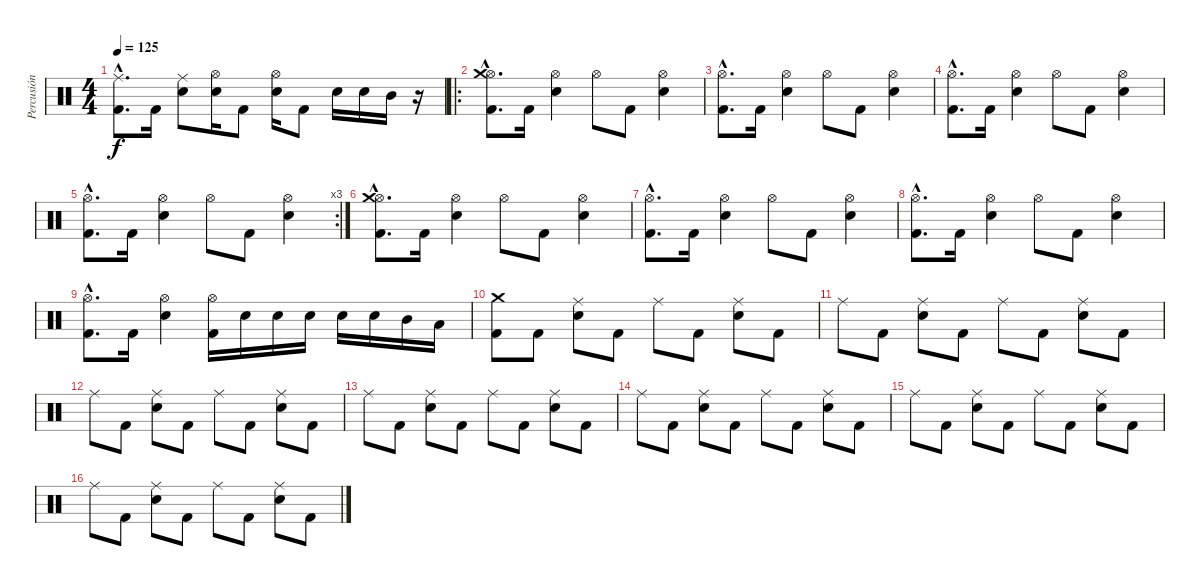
\track ("Percusión" "Percusión") {instrument percussion}
\staff {score}
\articulation defaults
\ts (4 4)
\tempo 125
\clef neutral
\ks c
("Ride (middle)"{hac} "Kick (hit) 2"{hac}).8{d dy f} "Kick (hit) 2".16 ("Ride (middle)" "Electric Snare (hit)").8 ("Hi-Hat (open)" "Electric Snare (hit)").16 "Kick (hit) 2".8 ("Hi-Hat (open)" "Electric Snare (hit)").16 "Kick (hit) 2".8 "Electric Snare (hit)".16 "Electric Snare (hit)".16 "Mid Tom (hit)".16 r.16 |
\ro
("Hi-Hat (open)"{hac} "Kick (hit) 2"{hac} "Crash medium (hit)"{hac}).8{d} "Kick (hit) 2".16 ("Hi-Hat (open)" "Electric Snare (hit)").4 "Hi-Hat (open)".8 "Kick (hit) 2".8 ("Hi-Hat (open)" "Electric Snare (hit)").4 |
("Hi-Hat (open)"{hac} "Kick (hit) 2"{hac}).8{d} "Kick (hit) 2".16 ("Hi-Hat (open)" "Electric Snare (hit)").4 "Hi-Hat (open)".8 "Kick (hit) 2".8 ("Hi-Hat (open)" "Electric Snare (hit)").4 |
("Hi-Hat (open)"{hac} "Kick (hit) 2"{hac}).8{d} "Kick (hit) 2".16 ("Hi-Hat (open)" "Electric Snare (hit)").4 "Hi-Hat (open)".8 "Kick (hit) 2".8 ("Hi-Hat (open)" "Electric Snare (hit)").4 |
\rc 3
("Hi-Hat (open)"{hac} "Kick (hit) 2"{hac}).8{d} "Kick (hit) 2".16 ("Hi-Hat (open)" "Electric Snare (hit)").4 "Hi-Hat (open)".8 "Kick (hit) 2".8 ("Hi-Hat (open)" "Electric Snare (hit)").4 |
("Hi-Hat (open)"{hac} "Kick (hit) 2"{hac} "Crash medium (hit)"{hac}).8{d} "Kick (hit) 2".16 ("Hi-Hat (open)" "Electric Snare (hit)").4 "Hi-Hat (open)".8 "Kick (hit) 2".8 ("Hi-Hat (open)" "Electric Snare (hit)").4 |
("Hi-Hat (open)"{hac} "Kick (hit) 2"{hac}).8{d} "Kick (hit) 2".16 ("Hi-Hat (open)" "Electric Snare (hit)").4 "Hi-Hat (open)".8 "Kick (hit) 2".8 ("Hi-Hat (open)" "Electric Snare (hit)").4 |
("Hi-Hat (open)"{hac} "Kick (hit) 2"{hac}).8{d} "Kick (hit) 2".16 ("Hi-Hat (open)" "Electric Snare (hit)").4 "Hi-Hat (open)".8 "Kick (hit) 2".8 ("Hi-Hat (open)" "Electric Snare (hit)").4 |
("Hi-Hat (open)"{hac} "Kick (hit) 2"{hac}).8{d} "Kick (hit) 2".16 ("Hi-Hat (open)" "Electric Snare (hit)").4 ("Hi-Hat (open)" "Kick (hit) 2").16 "Electric Snare (hit)".16 "Electric Snare (hit)".16 "Electric Snare (hit)".16 "Electric Snare (hit)".16 "Electric Snare (hit)".16 "Mid Tom (hit)".16 "Low Tom (hit)".16 |
("Crash medium (hit)" "Kick (hit) 2").8 "Kick (hit) 2".8 ("Ride (middle)" "Electric Snare (hit)").8 "Kick (hit) 2".8 "Ride (middle)".8 "Kick (hit) 2".8 ("Ride (middle)" "Electric Snare (hit)").8 "Kick (hit) 2".8 |
"Ride (middle)".8 "Kick (hit) 2".8 ("Ride (middle)" "Electric Snare (hit)").8 "Kick (hit) 2".8 "Ride (middle)".8 "Kick (hit) 2".8 ("Ride (middle)" "Electric Snare (hit)").8 "Kick (hit) 2".8 |
"Ride (middle)".8 "Kick (hit) 2".8 ("Ride (middle)" "Electric Snare (hit)").8 "Kick (hit) 2".8 "Ride (middle)".8 "Kick (hit) 2".8 ("Ride (middle)" "Electric Snare (hit)").8 "Kick (hit) 2".8 |
"Ride (middle)".8 "Kick (hit) 2".8 ("Ride (middle)" "Electric Snare (hit)").8 "Kick (hit) 2".8 "Ride (middle)".8 "Kick (hit) 2".8 ("Ride (middle)" "Electric Snare (hit)").8 "Kick (hit) 2".8 |
"Ride (middle)".8 "Kick (hit) 2".8 ("Ride (middle)" "Electric Snare (hit)").8 "Kick (hit) 2".8 "Ride (middle)".8 "Kick (hit) 2".8 ("Ride (middle)" "Electric Snare (hit)").8 "Kick (hit) 2".8 |
"Ride (middle)".8 "Kick (hit) 2".8 ("Ride (middle)" "Electric Snare (hit)").8 "Kick (hit) 2".8 "Ride (middle)".8 "Kick (hit) 2".8 ("Ride (middle)" "Electric Snare (hit)").8 "Kick (hit) 2".8 |
"Ride (middle)".8 "Kick (hit) 2".8 ("Ride (middle)" "Electric Snare (hit)").8 "Kick (hit) 2".8 "Ride (middle)".8 "Kick (hit) 2".8 ("Ride (middle)" "Electric Snare (hit)").8 "Kick (hit) 2".8
